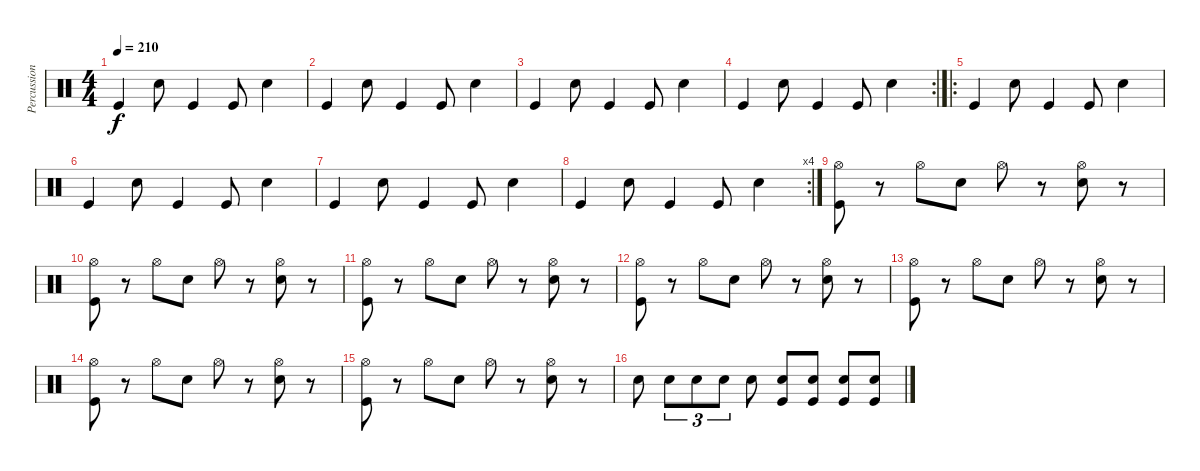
\track ("Percussion" "Percussion") {instrument percussion}
\staff {score}
\articulation defaults
\ts (4 4)
\tempo 210
\clef neutral
\ks c "Kick (hit)".4{dy f} "Snare (hit) 2".8 "Kick (hit)".4 "Kick (hit)".8 "Snare (hit) 2".4
|
"Kick (hit)".4 "Snare (hit) 2".8 "Kick (hit)".4 "Kick (hit)".8 "Snare (hit) 2".4 |
"Kick (hit)".4 "Snare (hit) 2".8 "Kick (hit)".4 "Kick (hit)".8 "Snare (hit) 2".4 |
\rc 2 "Kick (hit)".4 "Snare (hit) 2".8 "Kick (hit)".4 "Kick (hit)".8 "Snare (hit) 2".4
|
\ro "Kick (hit)".4 "Snare (hit) 2".8 "Kick (hit)".4 "Kick (hit)".8 "Snare (hit) 2".4
|
"Kick (hit)".4 "Snare (hit) 2".8 "Kick (hit)".4 "Kick (hit)".8 "Snare (hit) 2".4 |
"Kick (hit)".4 "Snare (hit) 2".8 "Kick (hit)".4 "Kick (hit)".8 "Snare (hit) 2".4 |
\rc 4 "Kick (hit)".4 "Snare (hit) 2".8 "Kick (hit)".4 "Kick (hit)".8 "Snare (hit) 2".4
|
("Hi-Hat (open)" "Kick (hit)").8 r.8 "Hi-Hat (open)".8 "Snare (hit) 2".8 "Hi-Hat (open)".8 r.8 ("Hi-Hat (open)" "Snare (hit) 2").8 r.8 |
("Hi-Hat (open)" "Kick (hit)").8 r.8 "Hi-Hat (open)".8 "Snare (hit) 2".8 "Hi-Hat (open)".8 r.8 ("Hi-Hat (open)" "Snare (hit) 2").8 r.8 |
("Hi-Hat (open)" "Kick (hit)").8 r.8 "Hi-Hat (open)".8 "Snare (hit) 2".8 "Hi-Hat (open)".8 r.8 ("Hi-Hat (open)" "Snare (hit) 2").8 r.8 |
("Hi-Hat (open)" "Kick (hit)").8 r.8 "Hi-Hat (open)".8 "Snare (hit) 2".8 "Hi-Hat (open)".8 r.8 ("Hi-Hat (open)" "Snare (hit) 2").8 r.8 |
("Hi-Hat (open)" "Kick (hit)").8 r.8 "Hi-Hat (open)".8 "Snare (hit) 2".8 "Hi-Hat (open)".8 r.8 ("Hi-Hat (open)" "Snare (hit) 2").8 r.8 |
("Hi-Hat (open)" "Kick (hit)").8 r.8 "Hi-Hat (open)".8 "Snare (hit) 2".8 "Hi-Hat (open)".8 r.8 ("Hi-Hat (open)" "Snare (hit) 2").8 r.8 |
("Hi-Hat (open)" "Kick (hit)").8 r.8 "Hi-Hat (open)".8 "Snare (hit) 2".8 "Hi-Hat (open)".8 r.8 ("Hi-Hat (open)" "Snare (hit) 2").8 r.8 |
"Snare (hit) 2".8 "Snare (hit) 2".8{tu (3 2)} "Snare (hit) 2".8{tu (3 2)} "Snare (hit) 2".8{tu (3 2)} "Snare (hit) 2".8 ("Snare (hit) 2" "Kick (hit)").8 ("Snare (hit) 2" "Kick (hit)").8 ("Snare (hit) 2" "Kick (hit)").8 ("Snare (hit) 2" "Kick (hit)").8
